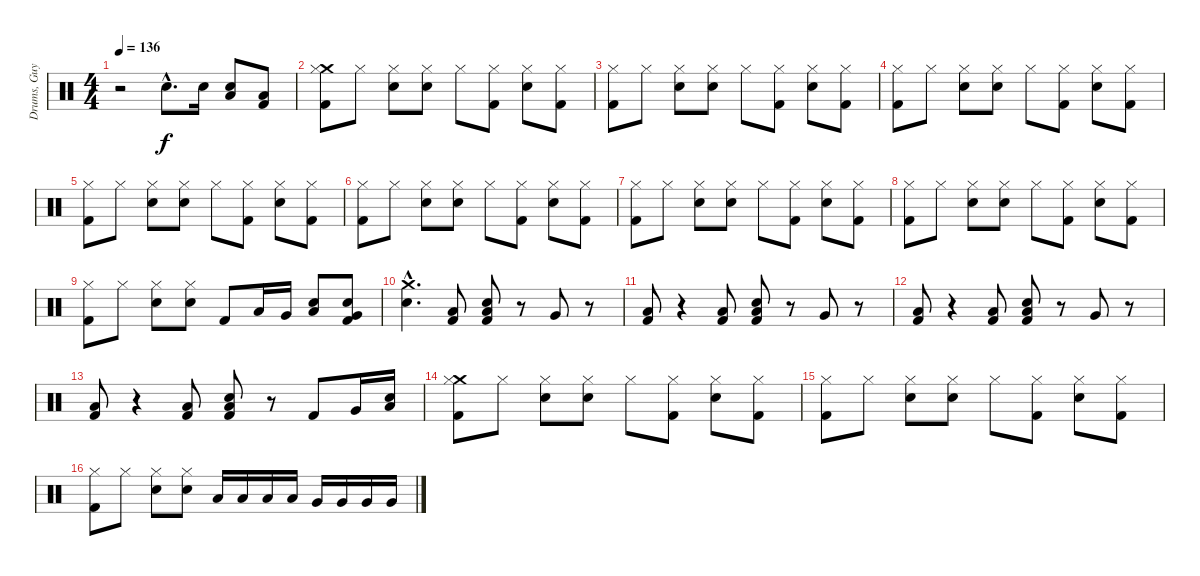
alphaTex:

\track ("Drums, Guy" "Drums, Guy") {instrument percussion}
\staff {score}
\articulation defaults
\ts (4 4)
\tempo 136
\clef neutral
\ks c
r.2{dy f} "Electric Snare (hit)"{hac}.8{d} "Electric Snare (hit)".16 ("Electric Snare (hit)" "Low Tom (hit)").8 ("Low Floor Tom (hit)" "Kick (hit) 2").8 |
("Crash medium (hit)" "Kick (hit) 2" "Hi-Hat (closed)").8 "Hi-Hat (closed)".8 ("Electric Snare (hit)" "Hi-Hat (closed)").8 ("Electric Snare (hit)" "Hi-Hat (closed)").8 "Hi-Hat (closed)".8 ("Kick (hit) 2" "Hi-Hat (closed)").8 ("Electric Snare (hit)" "Hi-Hat (closed)").8 ("Kick (hit) 2" "Hi-Hat (closed)").8 |
("Kick (hit) 2" "Hi-Hat (closed)").8 "Hi-Hat (closed)".8 ("Electric Snare (hit)" "Hi-Hat (closed)").8 ("Electric Snare (hit)" "Hi-Hat (closed)").8 "Hi-Hat (closed)".8 ("Kick (hit) 2" "Hi-Hat (closed)").8 ("Electric Snare (hit)" "Hi-Hat (closed)").8 ("Kick (hit) 2" "Hi-Hat (closed)").8 |
("Kick (hit) 2" "Hi-Hat (closed)").8 "Hi-Hat (closed)".8 ("Electric Snare (hit)" "Hi-Hat (closed)").8 ("Electric Snare (hit)" "Hi-Hat (closed)").8 "Hi-Hat (closed)".8 ("Kick (hit) 2" "Hi-Hat (closed)").8 ("Electric Snare (hit)" "Hi-Hat (closed)").8 ("Kick (hit) 2" "Hi-Hat (closed)").8 |
("Kick (hit) 2" "Hi-Hat (closed)").8 "Hi-Hat (closed)".8 ("Electric Snare (hit)" "Hi-Hat (closed)").8 ("Electric Snare (hit)" "Hi-Hat (closed)").8 "Hi-Hat (closed)".8 ("Kick (hit) 2" "Hi-Hat (closed)").8 ("Electric Snare (hit)" "Hi-Hat (closed)").8 ("Kick (hit) 2" "Hi-Hat (closed)").8 |
("Kick (hit) 2" "Hi-Hat (closed)").8 "Hi-Hat (closed)".8 ("Electric Snare (hit)" "Hi-Hat (closed)").8 ("Electric Snare (hit)" "Hi-Hat (closed)").8 "Hi-Hat (closed)".8 ("Kick (hit) 2" "Hi-Hat (closed)").8 ("Electric Snare (hit)" "Hi-Hat (closed)").8 ("Kick (hit) 2" "Hi-Hat (closed)").8 |
("Kick (hit) 2" "Hi-Hat (closed)").8 "Hi-Hat (closed)".8 ("Electric Snare (hit)" "Hi-Hat (closed)").8 ("Electric Snare (hit)" "Hi-Hat (closed)").8 "Hi-Hat (closed)".8 ("Kick (hit) 2" "Hi-Hat (closed)").8 ("Electric Snare (hit)" "Hi-Hat (closed)").8 ("Kick (hit) 2" "Hi-Hat (closed)").8 |
("Kick (hit) 2" "Hi-Hat (closed)").8 "Hi-Hat (closed)".8 ("Electric Snare (hit)" "Hi-Hat (closed)").8 ("Electric Snare (hit)" "Hi-Hat (closed)").8 "Hi-Hat (closed)".8 ("Kick (hit) 2" "Hi-Hat (closed)").8 ("Electric Snare (hit)" "Hi-Hat (closed)").8 ("Kick (hit) 2" "Hi-Hat (closed)").8 |
("Kick (hit) 2" "Hi-Hat (closed)").8 "Hi-Hat (closed)".8 ("Electric Snare (hit)" "Hi-Hat (closed)").8 ("Electric Snare (hit)" "Hi-Hat (closed)").8 "Kick (hit) 2".8 "Low Floor Tom (hit)".16 "Very Low Tom (hit)".16 ("Low Tom (hit)" "Electric Snare (hit)").8 ("Very Low Tom (hit)" "Electric Snare (hit)" "Kick (hit) 2").8 |
("Crash medium (hit)"{hac} "Electric Snare (hit)"{hac}).4{d} ("Kick (hit) 2" "Low Floor Tom (hit)").8 ("Kick (hit) 2" "Low Floor Tom (hit)" "Electric Snare (hit)").8 r.8 "Very Low Tom (hit)".8 r.8 |
("Kick (hit) 2" "Low Floor Tom (hit)").8 r.4 ("Kick (hit) 2" "Low Floor Tom (hit)").8 ("Low Floor Tom (hit)" "Kick (hit) 2" "Electric Snare (hit)").8 r.8 "Very Low Tom (hit)".8 r.8 |
("Low Floor Tom (hit)" "Kick (hit) 2").8 r.4 ("Kick (hit) 2" "Low Floor Tom (hit)").8 ("Low Floor Tom (hit)" "Kick (hit) 2" "Electric Snare (hit)").8 r.8 "Very Low Tom (hit)".8 r.8 |
("Low Floor Tom (hit)" "Kick (hit) 2").8 r.4 ("Kick (hit) 2" "Low Floor Tom (hit)").8 ("Low Floor Tom (hit)" "Kick (hit) 2" "Electric Snare (hit)").8 r.8 "Kick (hit) 2".8 "Very Low Tom (hit)".16 ("Low Floor Tom (hit)" "Electric Snare (hit)").16 |
("Crash medium (hit)" "Hi-Hat (closed)" "Kick (hit) 2").8 "Hi-Hat (closed)".8 ("Electric Snare (hit)" "Hi-Hat (closed)").8 ("Electric Snare (hit)" "Hi-Hat (closed)").8 "Hi-Hat (closed)".8 ("Kick (hit) 2" "Hi-Hat (closed)").8 ("Electric Snare (hit)" "Hi-Hat (closed)").8 ("Kick (hit) 2" "Hi-Hat (closed)").8 |
("Hi-Hat (closed)" "Kick (hit) 2").8 "Hi-Hat (closed)".8 ("Electric Snare (hit)" "Hi-Hat (closed)").8 ("Electric Snare (hit)" "Hi-Hat (closed)").8 "Hi-Hat (closed)".8 ("Kick (hit) 2" "Hi-Hat (closed)").8 ("Electric Snare (hit)" "Hi-Hat (closed)").8 ("Kick (hit) 2" "Hi-Hat (closed)").8 |
("Hi-Hat (closed)" "Kick (hit) 2").8 "Hi-Hat (closed)".8 ("Electric Snare (hit)" "Hi-Hat (closed)").8 ("Electric Snare (hit)" "Hi-Hat (closed)").8 "Low Tom (hit)".16 "Low Tom (hit)".16 "Low Tom (hit)".16 "Low Tom (hit)".16 "Very Low Tom (hit)".16 "Very Low Tom (hit)".16 "Very Low Tom (hit)".16 "Very Low Tom (hit)".16
